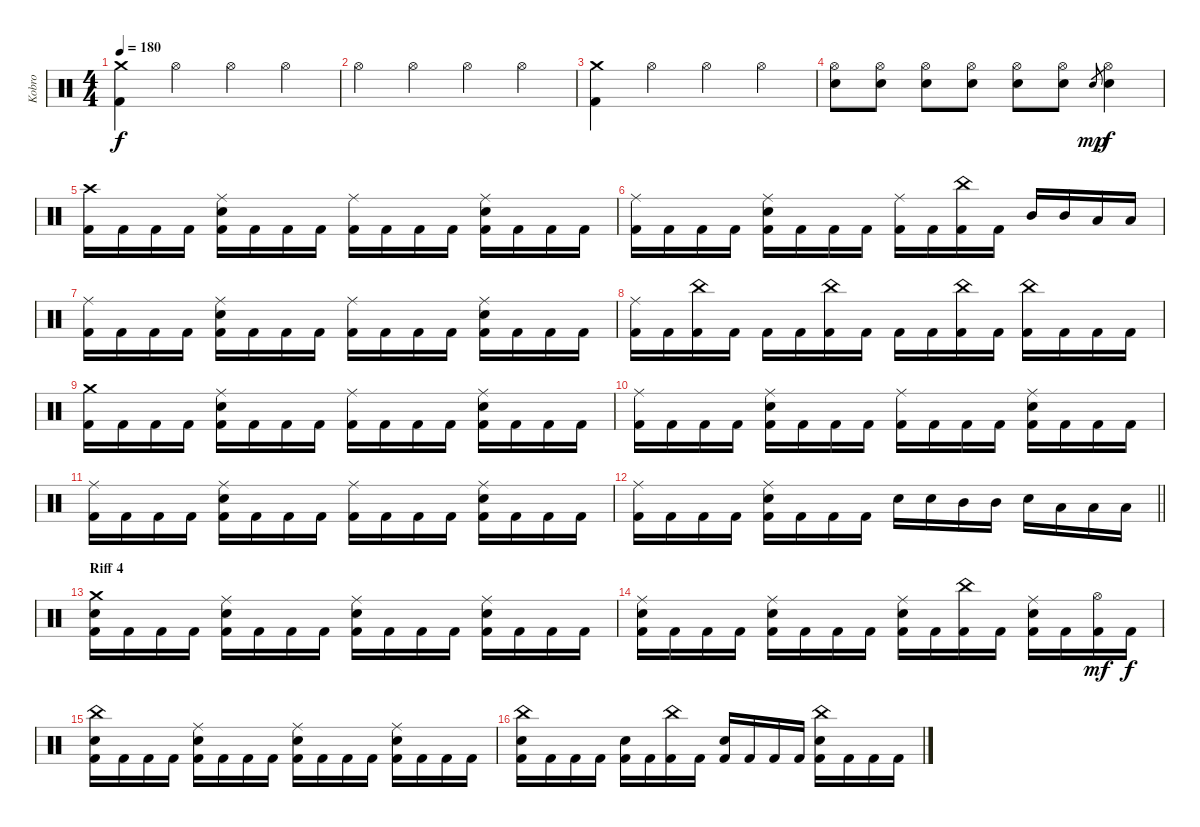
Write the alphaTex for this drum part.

\track ("Kobro" "Kobro") {instrument percussion}
\staff {score}
\articulation defaults
\ts (4 4)
\tempo 180
\clef neutral
\ks c
("Crash medium (hit)" "Kick (hit) 2").4{dy f} "Hi-Hat (open)".4 "Hi-Hat (open)".4 "Hi-Hat (open)".4 |
"Hi-Hat (open)".4 "Hi-Hat (open)".4 "Hi-Hat (open)".4 "Hi-Hat (open)".4 |
("Crash medium (hit)" "Kick (hit) 2").4 "Hi-Hat (open)".4 "Hi-Hat (open)".4 "Hi-Hat (open)".4 |
("Hi-Hat (open)" "Electric Snare (hit)").8 ("Hi-Hat (open)" "Electric Snare (hit)").8 ("Hi-Hat (open)" "Electric Snare (hit)").8 ("Hi-Hat (open)" "Electric Snare (hit)").8 ("Hi-Hat (open)" "Electric Snare (hit)").8 ("Hi-Hat (open)" "Electric Snare (hit)").8 "Electric Snare (hit)".8{gr dy mp} ("Hi-Hat (open)" "Electric Snare (hit)").4{dy f} |
("Crash high (hit)" "Kick (hit) 2").16 "Kick (hit) 2".16 "Kick (hit) 2".16 "Kick (hit) 2".16 ("Ride (middle)" "Electric Snare (hit)" "Kick (hit) 2").16 "Kick (hit) 2".16 "Kick (hit) 2".16 "Kick (hit) 2".16 ("Ride (middle)" "Kick (hit) 2").16 "Kick (hit) 2".16 "Kick (hit) 2".16 "Kick (hit) 2".16 ("Ride (middle)" "Electric Snare (hit)" "Kick (hit) 2").16 "Kick (hit) 2".16 "Kick (hit) 2".16 "Kick (hit) 2".16 |
("Ride (middle)" "Kick (hit) 2").16 "Kick (hit) 2".16 "Kick (hit) 2".16 "Kick (hit) 2".16 ("Ride (middle)" "Electric Snare (hit)" "Kick (hit) 2").16 "Kick (hit) 2".16 "Kick (hit) 2".16 "Kick (hit) 2".16 ("Ride (middle)" "Kick (hit) 2").16 "Kick (hit) 2".16 ("China (hit)" "Kick (hit) 2").16 "Kick (hit) 2".16 "Mid Tom (hit)".16 "Mid Tom (hit)".16 "Low Tom (hit)".16 "Low Tom (hit)".16 |
("Ride (middle)" "Kick (hit) 2").16 "Kick (hit) 2".16 "Kick (hit) 2".16 "Kick (hit) 2".16 ("Ride (middle)" "Electric Snare (hit)" "Kick (hit) 2").16 "Kick (hit) 2".16 "Kick (hit) 2".16 "Kick (hit) 2".16 ("Ride (middle)" "Kick (hit) 2").16 "Kick (hit) 2".16 "Kick (hit) 2".16 "Kick (hit) 2".16 ("Ride (middle)" "Electric Snare (hit)" "Kick (hit) 2").16 "Kick (hit) 2".16 "Kick (hit) 2".16 "Kick (hit) 2".16 |
("Ride (middle)" "Kick (hit) 2").16 "Kick (hit) 2".16 ("China (hit)" "Kick (hit) 2").16 "Kick (hit) 2".16 "Kick (hit) 2".16 "Kick (hit) 2".16 ("China (hit)" "Kick (hit) 2").16 "Kick (hit) 2".16 "Kick (hit) 2".16 "Kick (hit) 2".16 ("China (hit)" "Kick (hit) 2").16 "Kick (hit) 2".16 ("China (hit)" "Kick (hit) 2").16 "Kick (hit) 2".16 "Kick (hit) 2".16 "Kick (hit) 2".16 |
("Crash medium (hit)" "Kick (hit) 2").16 "Kick (hit) 2".16 "Kick (hit) 2".16 "Kick (hit) 2".16 ("Ride (middle)" "Electric Snare (hit)" "Kick (hit) 2").16 "Kick (hit) 2".16 "Kick (hit) 2".16 "Kick (hit) 2".16 ("Ride (middle)" "Kick (hit) 2").16 "Kick (hit) 2".16 "Kick (hit) 2".16 "Kick (hit) 2".16 ("Ride (middle)" "Electric Snare (hit)" "Kick (hit) 2").16 "Kick (hit) 2".16 "Kick (hit) 2".16 "Kick (hit) 2".16 |
("Ride (middle)" "Kick (hit) 2").16 "Kick (hit) 2".16 "Kick (hit) 2".16 "Kick (hit) 2".16 ("Ride (middle)" "Electric Snare (hit)" "Kick (hit) 2").16 "Kick (hit) 2".16 "Kick (hit) 2".16 "Kick (hit) 2".16 ("Ride (middle)" "Kick (hit) 2").16 "Kick (hit) 2".16 "Kick (hit) 2".16 "Kick (hit) 2".16 ("Ride (middle)" "Electric Snare (hit)" "Kick (hit) 2").16 "Kick (hit) 2".16 "Kick (hit) 2".16 "Kick (hit) 2".16 |
("Ride (middle)" "Kick (hit) 2").16 "Kick (hit) 2".16 "Kick (hit) 2".16 "Kick (hit) 2".16 ("Ride (middle)" "Electric Snare (hit)" "Kick (hit) 2").16 "Kick (hit) 2".16 "Kick (hit) 2".16 "Kick (hit) 2".16 ("Ride (middle)" "Kick (hit) 2").16 "Kick (hit) 2".16 "Kick (hit) 2".16 "Kick (hit) 2".16 ("Ride (middle)" "Electric Snare (hit)" "Kick (hit) 2").16 "Kick (hit) 2".16 "Kick (hit) 2".16 "Kick (hit) 2".16 |
\barLineRight lightlight
("Ride (middle)" "Kick (hit) 2").16 "Kick (hit) 2".16 "Kick (hit) 2".16 "Kick (hit) 2".16 ("Ride (middle)" "Electric Snare (hit)" "Kick (hit) 2").16 "Kick (hit) 2".16 "Kick (hit) 2".16 "Kick (hit) 2".16 "Electric Snare (hit)".16 "Electric Snare (hit)".16 "Mid Tom (hit)".16 "Mid Tom (hit)".16 "Electric Snare (hit)".16 "Low Tom (hit)".16 "Low Tom (hit)".16 "Low Tom (hit)".16 |
\section ("" "Riff 4")
("Crash medium (hit)" "Electric Snare (hit)" "Kick (hit) 2").16 "Kick (hit) 2".16 "Kick (hit) 2".16 "Kick (hit) 2".16 ("Ride (middle)" "Electric Snare (hit)" "Kick (hit) 2").16 "Kick (hit) 2".16 "Kick (hit) 2".16 "Kick (hit) 2".16 ("Ride (middle)" "Electric Snare (hit)" "Kick (hit) 2").16 "Kick (hit) 2".16 "Kick (hit) 2".16 "Kick (hit) 2".16 ("Ride (middle)" "Electric Snare (hit)" "Kick (hit) 2").16 "Kick (hit) 2".16 "Kick (hit) 2".16 "Kick (hit) 2".16 |
("Ride (middle)" "Electric Snare (hit)" "Kick (hit) 2").16 "Kick (hit) 2".16 "Kick (hit) 2".16 "Kick (hit) 2".16 ("Ride (middle)" "Electric Snare (hit)" "Kick (hit) 2").16 "Kick (hit) 2".16 "Kick (hit) 2".16 "Kick (hit) 2".16 ("Ride (middle)" "Electric Snare (hit)" "Kick (hit) 2").16 "Kick (hit) 2".16 ("China (hit)" "Kick (hit) 2").16 "Kick (hit) 2".16 ("Ride (middle)" "Electric Snare (hit)" "Kick (hit) 2").16 "Kick (hit) 2".16 ("Hi-Hat (open)" "Kick (hit) 2").16{dy mf} "Kick (hit) 2".16{dy f} |
("China (hit)" "Electric Snare (hit)" "Kick (hit) 2").16 "Kick (hit) 2".16 "Kick (hit) 2".16 "Kick (hit) 2".16 ("Ride (middle)" "Electric Snare (hit)" "Kick (hit) 2").16 "Kick (hit) 2".16 "Kick (hit) 2".16 "Kick (hit) 2".16 ("Ride (middle)" "Electric Snare (hit)" "Kick (hit) 2").16 "Kick (hit) 2".16 "Kick (hit) 2".16 "Kick (hit) 2".16 ("Ride (middle)" "Electric Snare (hit)" "Kick (hit) 2").16 "Kick (hit) 2".16 "Kick (hit) 2".16 "Kick (hit) 2".16 |
("China (hit)" "Electric Snare (hit)" "Kick (hit) 2").16 "Kick (hit) 2".16 "Kick (hit) 2".16 "Kick (hit) 2".16 ("Electric Snare (hit)" "Kick (hit) 2").16 "Kick (hit) 2".16 ("China (hit)" "Kick (hit) 2").16 "Kick (hit) 2".16 ("Electric Snare (hit)" "Kick (hit) 2").16 "Kick (hit) 2".16 "Kick (hit) 2".16 "Kick (hit) 2".16 ("China (hit)" "Electric Snare (hit)" "Kick (hit) 2").16 "Kick (hit) 2".16 "Kick (hit) 2".16 "Kick (hit) 2".16
